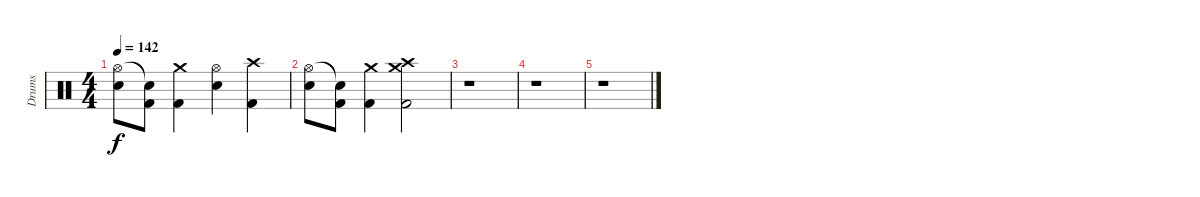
\track ("Drums" "Drums") {instrument percussion}
\staff {score}
\articulation defaults
\ts (4 4)
\tempo 142
\clef neutral
\ks c
("Hi-Hat (open)" "Snare (hit) 2").8{dy f} ("Snare (hit)"{t} "Kick (hit) 2").8 ("Crash medium (hit)" "Kick (hit) 2").4 ("Hi-Hat (open)" "Snare (hit) 2").4 ("Crash high (hit)" "Kick (hit) 2").4 |
("Hi-Hat (open)" "Snare (hit) 2").8 ("Snare (hit)"{t} "Kick (hit) 2").8 ("Crash medium (hit)" "Kick (hit) 2").4 ("Crash medium (hit)" "Crash high (hit)" "Kick (hit) 2").2 |
r.1 |
r.1 |
r.1
